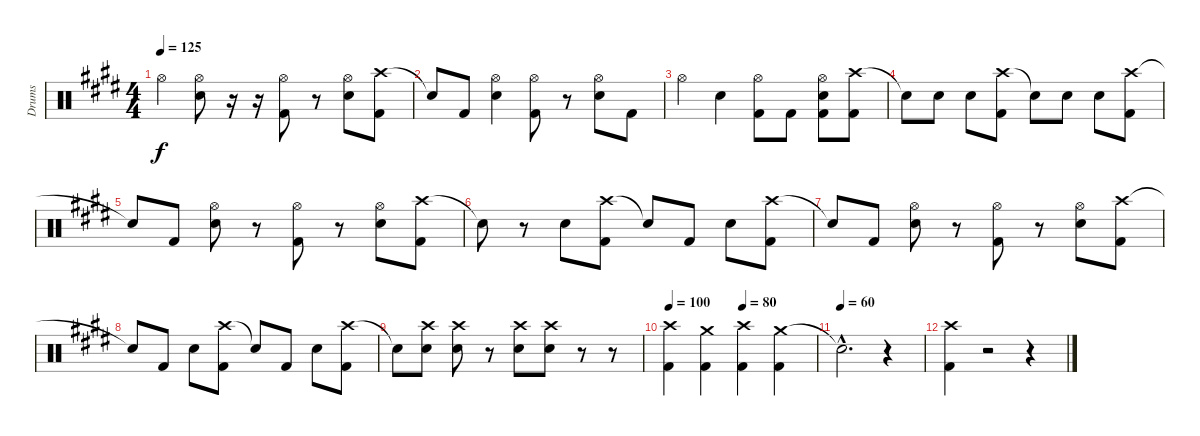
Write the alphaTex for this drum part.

\track ("Drums" "Drums") {instrument percussion}
\staff {score}
\articulation defaults
\ts (4 4)
\tempo 125
\clef neutral
\ks e "Hi-Hat (open)".4{dy f}
("Hi-Hat (open)" "Electric Snare (hit)").8 r.16 r.16 ("Hi-Hat (open)" "Kick (hit) 2").8 r.8 ("Hi-Hat (open)" "Electric Snare (hit)").8 ("Crash high (hit)" "Kick (hit) 2").8 |
"Snare (hit)"{t}.8 "Kick (hit) 2".8 ("Hi-Hat (open)" "Electric Snare (hit)").4 ("Hi-Hat (open)" "Kick (hit) 2").8 r.8 ("Hi-Hat (open)" "Electric Snare (hit)").8 "Kick (hit) 2".8 |
"Hi-Hat (open)".4 "Electric Snare (hit)".4 ("Hi-Hat (open)" "Kick (hit) 2").8 "Kick (hit) 2".8 ("Hi-Hat (open)" "Electric Snare (hit)" "Kick (hit) 2").8 ("Crash high (hit)" "Kick (hit) 2").8 |
"Snare (hit)"{t}.8 "Electric Snare (hit)".8 "Electric Snare (hit)".8 ("Crash high (hit)" "Kick (hit) 2").8 "Snare (hit)"{t}.8 "Electric Snare (hit)".8 "Electric Snare (hit)".8 ("Crash high (hit)" "Kick (hit) 2").8 |
"Snare (hit)"{t}.8 "Kick (hit) 2".8 ("Hi-Hat (open)" "Electric Snare (hit)").8 r.8 ("Hi-Hat (open)" "Kick (hit) 2").8 r.8 ("Hi-Hat (open)" "Electric Snare (hit)").8 ("Crash high (hit)" "Kick (hit) 2").8 |
"Snare (hit)"{t}.8 r.8 "Electric Snare (hit)".8 ("Crash high (hit)" "Kick (hit) 2").8 "Snare (hit)"{t}.8 "Kick (hit) 2".8 "Electric Snare (hit)".8 ("Crash high (hit)" "Kick (hit) 2").8 |
"Snare (hit)"{t}.8 "Kick (hit) 2".8 ("Hi-Hat (open)" "Electric Snare (hit)").8 r.8 ("Hi-Hat (open)" "Kick (hit) 2").8 r.8 ("Hi-Hat (open)" "Electric Snare (hit)").8 ("Crash high (hit)" "Kick (hit) 2").8 |
"Snare (hit)"{t}.8 "Kick (hit) 2".8 "Electric Snare (hit)".8 ("Crash high (hit)" "Kick (hit) 2").8 "Snare (hit)"{t}.8 "Kick (hit) 2".8 "Electric Snare (hit)".8 ("Crash high (hit)" "Kick (hit) 2").8 |
"Snare (hit)"{t}.8 ("Crash high (hit)" "Electric Snare (hit)").8 ("Crash high (hit)" "Electric Snare (hit)").8 r.8 ("Crash high (hit)" "Electric Snare (hit)").8 ("Crash high (hit)" "Electric Snare (hit)").8 r.8 r.8 |
\tempo 100
\tempo (80 0.5)
("Crash high (hit)" "Kick (hit) 2").4 ("Crash medium (hit)" "Kick (hit) 2").4 ("Crash high (hit)" "Kick (hit) 2").4 ("Crash medium (hit)"{tr (57 32)} "Kick (hit) 2").4 |
\tempo (60)
"Snare (hit)"{hac t}.2{d} r.4 |
("Crash high (hit)" "Kick (hit) 2").4 r.2 r.4
